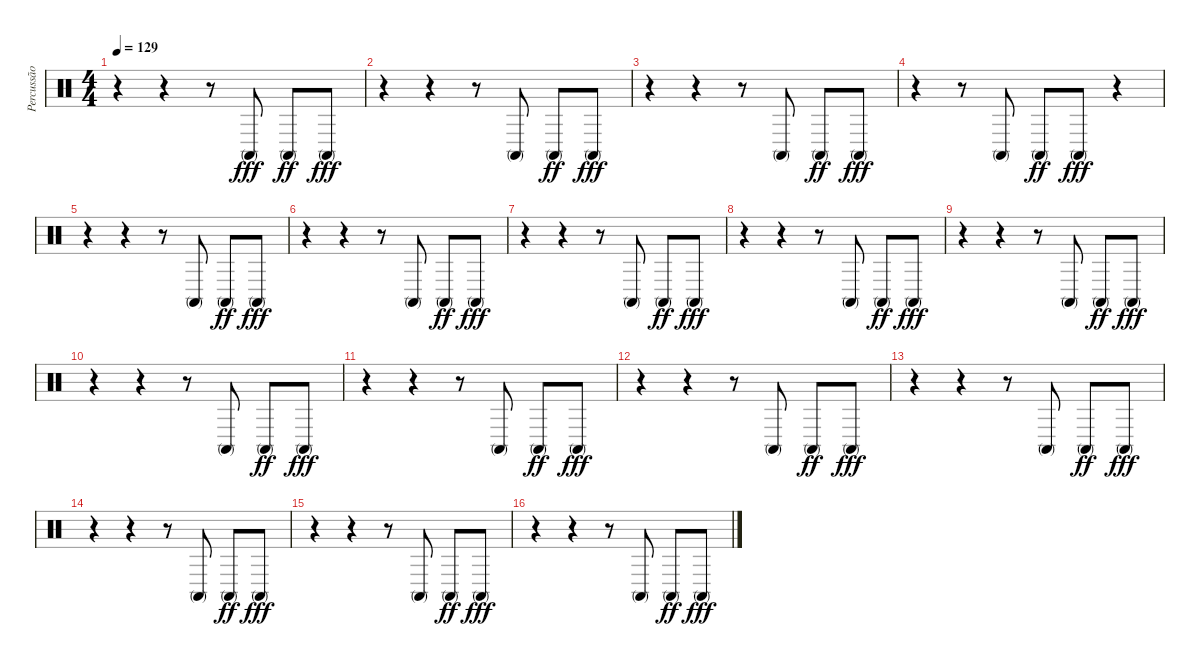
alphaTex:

\track ("Percussão" "Percussão") {instrument percussion}
\staff {score}
\articulation defaults
\ts (4 4)
\tempo 129
\clef neutral
\ks c
r.4{dy fff} r.4 r.8 "Conga high (mute)".8 "Conga high (mute)".8{dy ff} "Conga high (mute)".8{dy fff} |
r.4 r.4 r.8 "Conga high (mute)".8 "Conga high (mute)".8{dy ff} "Conga high (mute)".8{dy fff} |
r.4 r.4 r.8 "Conga high (mute)".8 "Conga high (mute)".8{dy ff} "Conga high (mute)".8{dy fff} |
r.4{volume 16} r.8 "Conga high (mute)".8 "Conga high (mute)".8{dy ff} "Conga high (mute)".8{dy fff} r.4 |
r.4 r.4 r.8 "Conga high (mute)".8 "Conga high (mute)".8{dy ff} "Conga high (mute)".8{dy fff} |
r.4 r.4 r.8 "Conga high (mute)".8 "Conga high (mute)".8{dy ff} "Conga high (mute)".8{dy fff} |
r.4 r.4 r.8 "Conga high (mute)".8 "Conga high (mute)".8{dy ff} "Conga high (mute)".8{dy fff} |
r.4 r.4 r.8 "Conga high (mute)".8 "Conga high (mute)".8{dy ff} "Conga high (mute)".8{dy fff} |
r.4 r.4 r.8 "Conga high (mute)".8 "Conga high (mute)".8{dy ff} "Conga high (mute)".8{dy fff} |
r.4 r.4 r.8 "Conga high (mute)".8 "Conga high (mute)".8{dy ff} "Conga high (mute)".8{dy fff} |
r.4 r.4 r.8 "Conga high (mute)".8 "Conga high (mute)".8{dy ff} "Conga high (mute)".8{dy fff} |
r.4 r.4 r.8 "Conga high (mute)".8 "Conga high (mute)".8{dy ff} "Conga high (mute)".8{dy fff} |
r.4 r.4 r.8 "Conga high (mute)".8 "Conga high (mute)".8{dy ff} "Conga high (mute)".8{dy fff} |
r.4 r.4 r.8 "Conga high (mute)".8 "Conga high (mute)".8{dy ff} "Conga high (mute)".8{dy fff} |
r.4 r.4 r.8 "Conga high (mute)".8 "Conga high (mute)".8{dy ff} "Conga high (mute)".8{dy fff} |
r.4 r.4 r.8 "Conga high (mute)".8 "Conga high (mute)".8{dy ff} "Conga high (mute)".8{dy fff}
